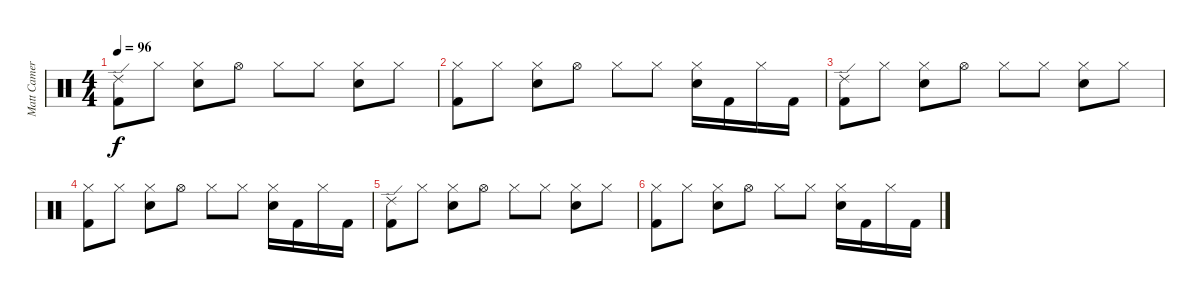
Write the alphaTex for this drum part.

\track ("Matt Cameron" "Matt Camer") {instrument percussion}
\staff {score}
\articulation defaults
\ts (4 4)
\tempo 96
\clef neutral
\ks c
("Ride (edge) 2" "Kick (hit) 2").8{dy f} "Hi-Hat (closed)".8 ("Hi-Hat (closed)" "Electric Snare (hit)").8 "Hi-Hat (open)".8 "Hi-Hat (closed)".8 "Hi-Hat (closed)".8 ("Hi-Hat (closed)" "Electric Snare (hit)").8 "Hi-Hat (closed)".8 |
("Hi-Hat (closed)" "Kick (hit) 2").8 "Hi-Hat (closed)".8 ("Hi-Hat (closed)" "Electric Snare (hit)").8 "Hi-Hat (open)".8 "Hi-Hat (closed)".8 "Hi-Hat (closed)".8 ("Hi-Hat (closed)" "Electric Snare (hit)").16 "Kick (hit) 2".16 "Hi-Hat (closed)".16 "Kick (hit) 2".16 |
("Ride (edge) 2" "Kick (hit) 2").8 "Hi-Hat (closed)".8 ("Hi-Hat (closed)" "Electric Snare (hit)").8 "Hi-Hat (open)".8 "Hi-Hat (closed)".8 "Hi-Hat (closed)".8 ("Hi-Hat (closed)" "Electric Snare (hit)").8 "Hi-Hat (closed)".8 |
("Hi-Hat (closed)" "Kick (hit) 2").8 "Hi-Hat (closed)".8 ("Hi-Hat (closed)" "Electric Snare (hit)").8 "Hi-Hat (open)".8 "Hi-Hat (closed)".8 "Hi-Hat (closed)".8 ("Hi-Hat (closed)" "Electric Snare (hit)").16 "Kick (hit) 2".16 "Hi-Hat (closed)".16 "Kick (hit) 2".16 |
("Ride (edge) 2" "Kick (hit) 2").8 "Hi-Hat (closed)".8 ("Hi-Hat (closed)" "Electric Snare (hit)").8 "Hi-Hat (open)".8 "Hi-Hat (closed)".8 "Hi-Hat (closed)".8 ("Hi-Hat (closed)" "Electric Snare (hit)").8 "Hi-Hat (closed)".8 |
("Hi-Hat (closed)" "Kick (hit) 2").8{volume 0} "Hi-Hat (closed)".8 ("Hi-Hat (closed)" "Electric Snare (hit)").8 "Hi-Hat (open)".8 "Hi-Hat (closed)".8 "Hi-Hat (closed)".8 ("Hi-Hat (closed)" "Electric Snare (hit)").16 "Kick (hit) 2".16 "Hi-Hat (closed)".16 "Kick (hit) 2".16
